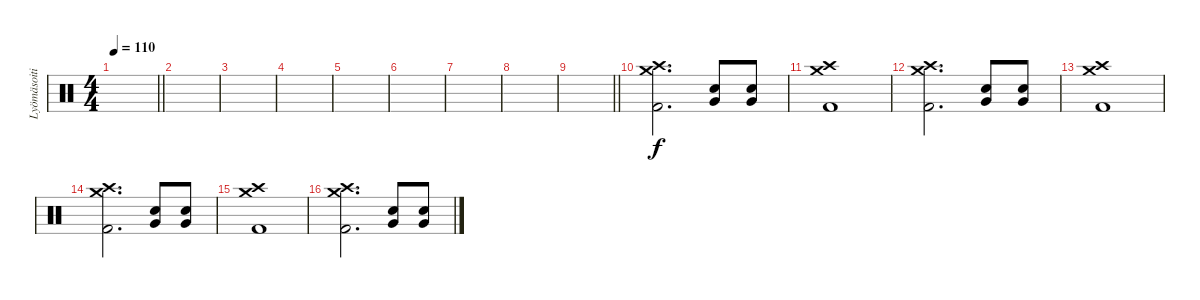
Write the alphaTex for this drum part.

\track ("Lyömäsoitin" "Lyömäsoiti") {instrument percussion}
\staff {score}
\articulation defaults
\ts (4 4)
\tempo 110
\clef neutral
\barLineRight lightlight
\ks c
|
\section ("" "")
|
|
|
|
|
|
|
\barLineRight lightlight
|
\section ("" "")
("Crash medium (hit)" "Crash high (hit)" "Kick (hit) 2").2{d} ("Very Low Tom (hit)" "Electric Snare (hit)").8 ("Very Low Tom (hit)" "Electric Snare (hit)").8 |
("Crash medium (hit)" "Crash high (hit)" "Kick (hit) 2").1 |
("Crash medium (hit)" "Crash high (hit)" "Kick (hit) 2").2{d} ("Very Low Tom (hit)" "Electric Snare (hit)").8 ("Very Low Tom (hit)" "Electric Snare (hit)").8 |
("Crash medium (hit)" "Crash high (hit)" "Kick (hit) 2").1 |
("Crash medium (hit)" "Crash high (hit)" "Kick (hit) 2").2{d} ("Very Low Tom (hit)" "Electric Snare (hit)").8 ("Very Low Tom (hit)" "Electric Snare (hit)").8 |
("Crash medium (hit)" "Crash high (hit)" "Kick (hit) 2").1 |
("Crash medium (hit)" "Crash high (hit)" "Kick (hit) 2").2{d} ("Very Low Tom (hit)" "Electric Snare (hit)").8 ("Very Low Tom (hit)" "Electric Snare (hit)").8
